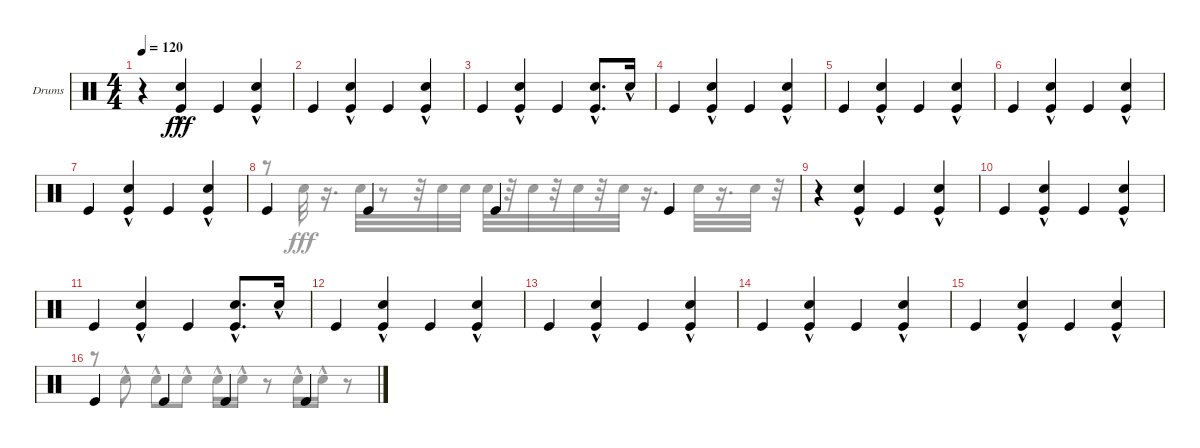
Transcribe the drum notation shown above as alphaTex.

\defaultSystemsLayout 4
\bracketExtendMode groupsimilarinstruments
\firstSystemTrackNameOrientation horizontal
\otherSystemsTrackNameOrientation horizontal
\track ("Drumkit" "Drums") {instrument percussion}
\staff {score}
\articulation defaults
\voice
\ts (4 4)
\tempo 120
\clef neutral
\scale
0.333333
\ks c
r.4{dy fff} ("Kick (hit)" "Snare (hit) 2"{hac}).4 "Kick (hit)".4 ("Kick (hit)" "Snare (hit) 2"{hac}).4 |
\scale
0.333333 "Kick (hit)".4 ("Kick (hit)" "Snare (hit) 2"{hac}).4 "Kick (hit)".4 ("Kick (hit)" "Snare (hit) 2"{hac}).4 |
\scale
0.333333 "Kick (hit)".4 ("Kick (hit)" "Snare (hit) 2"{hac}).4 "Kick (hit)".4 ("Kick (hit)" "Snare (hit) 2"{hac}).8{d} "Snare (hit) 2"{hac}.16 |
\scale
0.333333 "Kick (hit)".4 ("Kick (hit)" "Snare (hit) 2"{hac}).4 "Kick (hit)".4 ("Kick (hit)" "Snare (hit) 2"{hac}).4 |
\scale
0.333333 "Kick (hit)".4 ("Kick (hit)" "Snare (hit) 2"{hac}).4 "Kick (hit)".4 ("Kick (hit)" "Snare (hit) 2"{hac}).4 |
\scale
0.333333 "Kick (hit)".4 ("Kick (hit)" "Snare (hit) 2"{hac}).4 "Kick (hit)".4 ("Kick (hit)" "Snare (hit) 2"{hac}).4 |
\scale
0.333333 "Kick (hit)".4 ("Kick (hit)" "Snare (hit) 2"{hac}).4 "Kick (hit)".4 ("Kick (hit)" "Snare (hit) 2"{hac}).4 |
\scale
0.333333 "Kick (hit)".4 "Kick (hit)".4 "Kick (hit)".4 "Kick (hit)".4 |
\scale
0.333333 r.4 ("Kick (hit)" "Snare (hit) 2"{hac}).4 "Kick (hit)".4 ("Kick (hit)" "Snare (hit) 2"{hac}).4 |
\scale
0.333333 "Kick (hit)".4 ("Kick (hit)" "Snare (hit) 2"{hac}).4 "Kick (hit)".4 ("Kick (hit)" "Snare (hit) 2"{hac}).4 |
\scale
0.333333 "Kick (hit)".4 ("Kick (hit)" "Snare (hit) 2"{hac}).4 "Kick (hit)".4 ("Kick (hit)" "Snare (hit) 2"{hac}).8{d} "Snare (hit) 2"{hac}.16 |
\scale
0.333333 "Kick (hit)".4 ("Kick (hit)" "Snare (hit) 2"{hac}).4 "Kick (hit)".4 ("Kick (hit)" "Snare (hit) 2"{hac}).4 |
\scale
0.333333 "Kick (hit)".4 ("Kick (hit)" "Snare (hit) 2"{hac}).4 "Kick (hit)".4 ("Kick (hit)" "Snare (hit) 2"{hac}).4 |
\scale
0.333333 "Kick (hit)".4 ("Kick (hit)" "Snare (hit) 2"{hac}).4 "Kick (hit)".4 ("Kick (hit)" "Snare (hit) 2"{hac}).4 |
\scale
0.333333 "Kick (hit)".4 ("Kick (hit)" "Snare (hit) 2"{hac}).4 "Kick (hit)".4 ("Kick (hit)" "Snare (hit) 2"{hac}).4 |
\scale
0.333333 "Kick (hit)".4 "Kick (hit)".4 "Kick (hit)".4 "Kick (hit)".4
\voice
\clef neutral
\ottava regular
\simile none
\scale
0.333333
\ks c
|
\scale
0.333333 |
\scale
0.333333 |
\scale
0.333333 |
\scale
0.333333 |
\scale
0.333333 |
\scale
0.333333 |
\scale
0.333333 r.8 "Snare (hit) 2".32 r.16{d} "Snare (hit) 2".32 r.8 r.32 "Snare (hit) 2".32 "Snare (hit) 2".32 "Snare (hit) 2".32 r.32 "Snare (hit) 2".32 r.32 "Snare (hit) 2".32 r.32 "Snare (hit) 2".32 r.16{d} "Snare (hit) 2".32 r.16{d} "Snare (hit) 2".32 r.32 |
\scale
0.333333 |
\scale
0.333333 |
\scale
0.333333 |
\scale
0.333333 |
\scale
0.333333 |
\scale
0.333333 |
\scale
0.333333 |
\scale
0.333333 r.8 "Snare (hit) 2"{hac}.8 "Snare (hit) 2"{hac}.8 "Snare (hit) 2"{hac}.8 "Snare (hit) 2"{hac}.16 "Snare (hit) 2"{hac}.16 r.8 "Snare (hit) 2"{hac}.16 "Snare (hit) 2"{hac}.16 r.8
